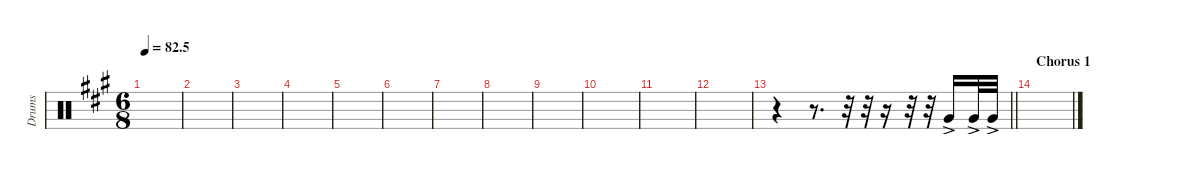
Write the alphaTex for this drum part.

\defaultSystemsLayout 4
\hideDynamics
\bracketExtendMode nobrackets
\otherSystemsTrackNameOrientation horizontal
\track ("Tom 04" "Drums") {instrument percussion}
\staff {score}
\articulation defaults
\ts (6 8)
\tempo
82.5
\accidentals auto
\clef neutral
\ottava regular
\simile none
\scale
0.333333
\ks a
|
\scale
0.333333 |
\scale
0.333333 |
\scale
0.333333 |
\scale
0.333333 |
\scale
0.333333 |
\scale
0.333333 |
\scale
0.333333 |
\scale
0.333333 |
\scale
0.333333 |
\scale
0.333333 |
\scale
0.333333 |
\scale
0.333333
\barLineRight lightlight
r.4 r.8{d} r.32 r.32 r.16 r.32 r.32 "Very Low Tom (hit)"{ac acc forcenatural}.16 "Very Low Tom (hit)"{ac acc forcenatural}.32 "Very Low Tom (hit)"{ac acc forcenatural}.32 |
\section ("" "Chorus 1")
\scale
0.333333 |
\scale
0.333333 |
\scale
0.333333
